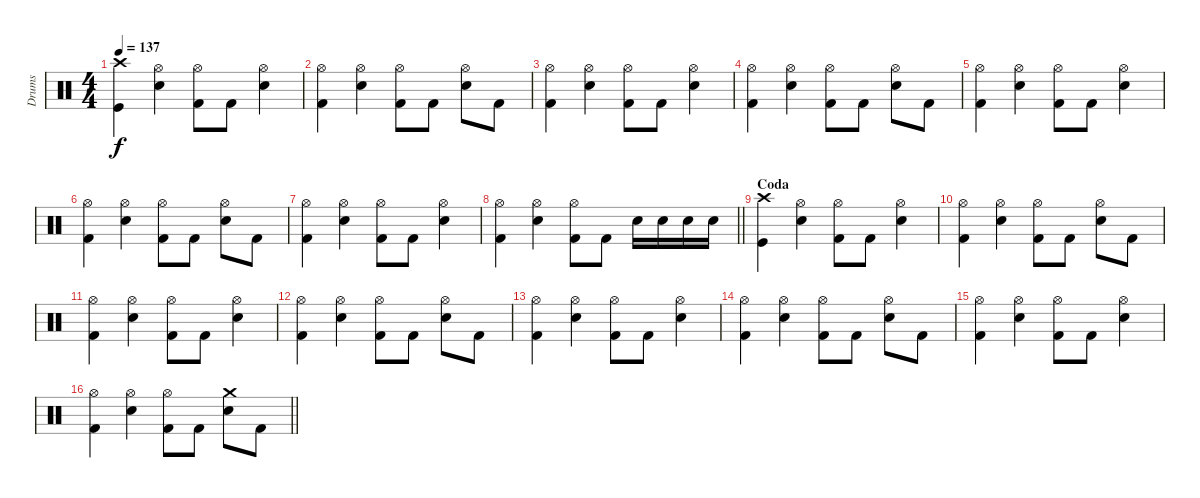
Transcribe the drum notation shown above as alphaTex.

\track ("Drums" "Drums") {instrument percussion}
\staff {score}
\articulation defaults
\ts (4 4)
\tempo 137
\clef neutral
\ks c
("Crash high (hit)" "Kick (hit)").4{dy f} ("Hi-Hat (open)" "Electric Snare (hit)").4 ("Hi-Hat (open)" "Kick (hit) 2").8 "Kick (hit) 2".8 ("Hi-Hat (open)" "Electric Snare (hit)").4 |
("Hi-Hat (open)" "Kick (hit) 2").4 ("Hi-Hat (open)" "Electric Snare (hit)").4 ("Hi-Hat (open)" "Kick (hit) 2").8 "Kick (hit) 2".8 ("Hi-Hat (open)" "Electric Snare (hit)").8 "Kick (hit) 2".8 |
("Hi-Hat (open)" "Kick (hit) 2").4 ("Hi-Hat (open)" "Electric Snare (hit)").4 ("Hi-Hat (open)" "Kick (hit) 2").8 "Kick (hit) 2".8 ("Hi-Hat (open)" "Electric Snare (hit)").4 |
("Hi-Hat (open)" "Kick (hit) 2").4 ("Hi-Hat (open)" "Electric Snare (hit)").4 ("Hi-Hat (open)" "Kick (hit) 2").8 "Kick (hit) 2".8 ("Hi-Hat (open)" "Electric Snare (hit)").8 "Kick (hit) 2".8 |
("Hi-Hat (open)" "Kick (hit) 2").4 ("Hi-Hat (open)" "Electric Snare (hit)").4 ("Hi-Hat (open)" "Kick (hit) 2").8 "Kick (hit) 2".8 ("Hi-Hat (open)" "Electric Snare (hit)").4 |
("Hi-Hat (open)" "Kick (hit) 2").4 ("Hi-Hat (open)" "Electric Snare (hit)").4 ("Hi-Hat (open)" "Kick (hit) 2").8 "Kick (hit) 2".8 ("Hi-Hat (open)" "Electric Snare (hit)").8 "Kick (hit) 2".8 |
("Hi-Hat (open)" "Kick (hit) 2").4 ("Hi-Hat (open)" "Electric Snare (hit)").4 ("Hi-Hat (open)" "Kick (hit) 2").8 "Kick (hit) 2".8 ("Hi-Hat (open)" "Electric Snare (hit)").4 |
\barLineRight lightlight
("Hi-Hat (open)" "Kick (hit) 2").4 ("Hi-Hat (open)" "Electric Snare (hit)").4 ("Hi-Hat (open)" "Kick (hit) 2").8 "Kick (hit) 2".8 "Electric Snare (hit)".16 "Electric Snare (hit)".16 "Electric Snare (hit)".16 "Electric Snare (hit)".16 |
\section ("" "Coda")
("Crash high (hit)" "Kick (hit)").4 ("Hi-Hat (open)" "Electric Snare (hit)").4 ("Hi-Hat (open)" "Kick (hit) 2").8 "Kick (hit) 2".8 ("Hi-Hat (open)" "Electric Snare (hit)").4 |
("Hi-Hat (open)" "Kick (hit) 2").4 ("Hi-Hat (open)" "Electric Snare (hit)").4 ("Hi-Hat (open)" "Kick (hit) 2").8 "Kick (hit) 2".8 ("Hi-Hat (open)" "Electric Snare (hit)").8 "Kick (hit) 2".8 |
("Hi-Hat (open)" "Kick (hit) 2").4 ("Hi-Hat (open)" "Electric Snare (hit)").4 ("Hi-Hat (open)" "Kick (hit) 2").8 "Kick (hit) 2".8 ("Hi-Hat (open)" "Electric Snare (hit)").4 |
("Hi-Hat (open)" "Kick (hit) 2").4 ("Hi-Hat (open)" "Electric Snare (hit)").4 ("Hi-Hat (open)" "Kick (hit) 2").8 "Kick (hit) 2".8 ("Hi-Hat (open)" "Electric Snare (hit)").8 "Kick (hit) 2".8 |
("Hi-Hat (open)" "Kick (hit) 2").4 ("Hi-Hat (open)" "Electric Snare (hit)").4 ("Hi-Hat (open)" "Kick (hit) 2").8 "Kick (hit) 2".8 ("Hi-Hat (open)" "Electric Snare (hit)").4 |
("Hi-Hat (open)" "Kick (hit) 2").4 ("Hi-Hat (open)" "Electric Snare (hit)").4 ("Hi-Hat (open)" "Kick (hit) 2").8 "Kick (hit) 2".8 ("Hi-Hat (open)" "Electric Snare (hit)").8 "Kick (hit) 2".8 |
("Hi-Hat (open)" "Kick (hit) 2").4 ("Hi-Hat (open)" "Electric Snare (hit)").4 ("Hi-Hat (open)" "Kick (hit) 2").8 "Kick (hit) 2".8 ("Hi-Hat (open)" "Electric Snare (hit)").4 |
\barLineRight lightlight
("Hi-Hat (open)" "Kick (hit) 2").4 ("Hi-Hat (open)" "Electric Snare (hit)").4 ("Hi-Hat (open)" "Kick (hit) 2").8 "Kick (hit) 2".8 ("Crash medium (hit)" "Electric Snare (hit)").8 "Kick (hit) 2".8
